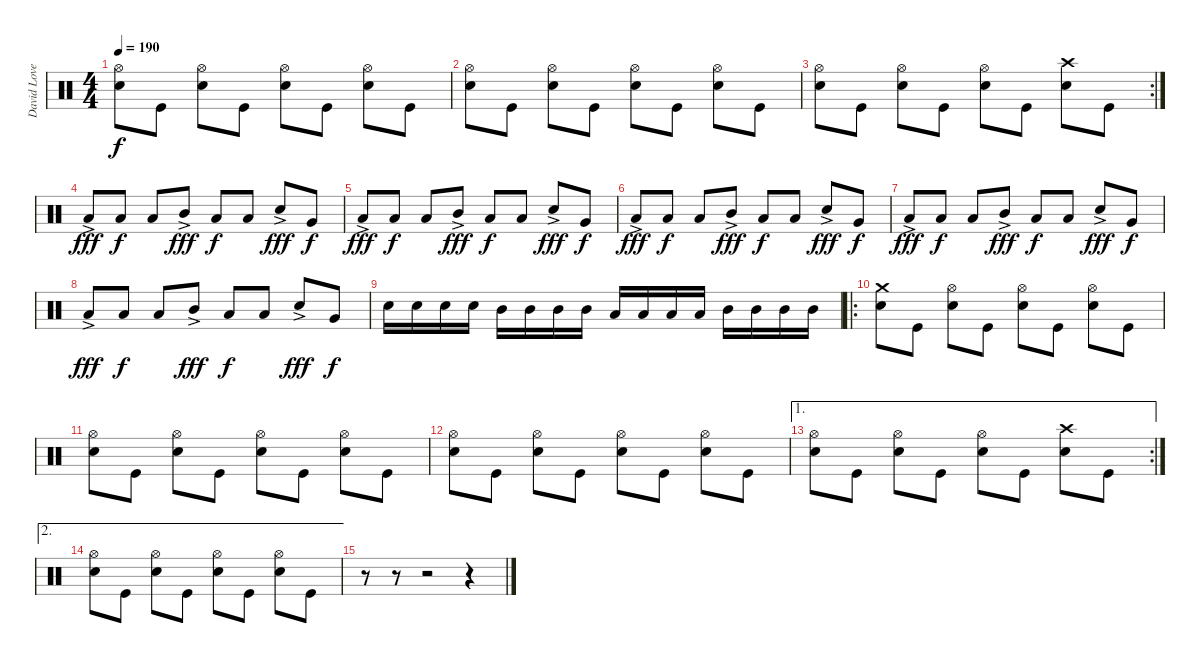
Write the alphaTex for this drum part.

\track ("David Lovering" "David Love") {instrument percussion}
\staff {score}
\articulation defaults
\ts (4 4)
\tempo 190
\clef neutral
\ks c
("Electric Snare (hit)" "Hi-Hat (open)").8{dy f} "Kick (hit)".8 ("Electric Snare (hit)" "Hi-Hat (open)").8 "Kick (hit)".8 ("Electric Snare (hit)" "Hi-Hat (open)").8 "Kick (hit)".8 ("Electric Snare (hit)" "Hi-Hat (open)").8 "Kick (hit)".8 |
("Electric Snare (hit)" "Hi-Hat (open)").8 "Kick (hit)".8 ("Electric Snare (hit)" "Hi-Hat (open)").8 "Kick (hit)".8 ("Electric Snare (hit)" "Hi-Hat (open)").8 "Kick (hit)".8 ("Electric Snare (hit)" "Hi-Hat (open)").8 "Kick (hit)".8 |
\rc 2
("Electric Snare (hit)" "Hi-Hat (open)").8 "Kick (hit)".8 ("Electric Snare (hit)" "Hi-Hat (open)").8 "Kick (hit)".8 ("Electric Snare (hit)" "Hi-Hat (open)").8 "Kick (hit)".8 ("Electric Snare (hit)" "Crash high (hit)").8 "Kick (hit)".8 |
"Low Tom (hit)"{ac}.8{dy fff} "Low Tom (hit)".8{dy f} "Low Tom (hit)".8 "Mid Tom (hit)"{ac}.8{dy fff} "Low Tom (hit)".8{dy f} "Low Tom (hit)".8 "Electric Snare (hit)"{ac}.8{dy fff} "Very Low Tom (hit)".8{dy f} |
"Low Tom (hit)"{ac}.8{dy fff} "Low Tom (hit)".8{dy f} "Low Tom (hit)".8 "Mid Tom (hit)"{ac}.8{dy fff} "Low Tom (hit)".8{dy f} "Low Tom (hit)".8 "Electric Snare (hit)"{ac}.8{dy fff} "Very Low Tom (hit)".8{dy f} |
"Low Tom (hit)"{ac}.8{dy fff} "Low Tom (hit)".8{dy f} "Low Tom (hit)".8 "Mid Tom (hit)"{ac}.8{dy fff} "Low Tom (hit)".8{dy f} "Low Tom (hit)".8 "Electric Snare (hit)"{ac}.8{dy fff} "Very Low Tom (hit)".8{dy f} |
"Low Tom (hit)"{ac}.8{dy fff} "Low Tom (hit)".8{dy f} "Low Tom (hit)".8 "Mid Tom (hit)"{ac}.8{dy fff} "Low Tom (hit)".8{dy f} "Low Tom (hit)".8 "Electric Snare (hit)"{ac}.8{dy fff} "Very Low Tom (hit)".8{dy f} |
"Low Tom (hit)"{ac}.8{dy fff} "Low Tom (hit)".8{dy f} "Low Tom (hit)".8 "Mid Tom (hit)"{ac}.8{dy fff} "Low Tom (hit)".8{dy f} "Low Tom (hit)".8 "Electric Snare (hit)"{ac}.8{dy fff} "Very Low Tom (hit)".8{dy f} |
"Electric Snare (hit)".16 "Electric Snare (hit)".16 "Electric Snare (hit)".16 "Electric Snare (hit)".16 "Mid Tom (hit)".16 "Mid Tom (hit)".16 "Mid Tom (hit)".16 "Mid Tom (hit)".16 "Low Tom (hit)".16 "Low Tom (hit)".16 "Low Tom (hit)".16 "Low Tom (hit)".16 "Mid Tom (hit)".16 "Mid Tom (hit)".16 "Mid Tom (hit)".16 "Mid Tom (hit)".16 |
\ro
("Electric Snare (hit)" "Crash medium (hit)").8 "Kick (hit)".8 ("Electric Snare (hit)" "Hi-Hat (open)").8 "Kick (hit)".8 ("Electric Snare (hit)" "Hi-Hat (open)").8 "Kick (hit)".8 ("Electric Snare (hit)" "Hi-Hat (open)").8 "Kick (hit)".8 |
("Electric Snare (hit)" "Hi-Hat (open)").8 "Kick (hit)".8 ("Electric Snare (hit)" "Hi-Hat (open)").8 "Kick (hit)".8 ("Electric Snare (hit)" "Hi-Hat (open)").8 "Kick (hit)".8 ("Electric Snare (hit)" "Hi-Hat (open)").8 "Kick (hit)".8 |
("Electric Snare (hit)" "Hi-Hat (open)").8 "Kick (hit)".8 ("Electric Snare (hit)" "Hi-Hat (open)").8 "Kick (hit)".8 ("Electric Snare (hit)" "Hi-Hat (open)").8 "Kick (hit)".8 ("Electric Snare (hit)" "Hi-Hat (open)").8 "Kick (hit)".8 |
\ae 1
\rc 2
("Electric Snare (hit)" "Hi-Hat (open)").8 "Kick (hit)".8 ("Electric Snare (hit)" "Hi-Hat (open)").8 "Kick (hit)".8 ("Electric Snare (hit)" "Hi-Hat (open)").8 "Kick (hit)".8 ("Electric Snare (hit)" "Crash high (hit)").8 "Kick (hit)".8 |
\ae 2
("Electric Snare (hit)" "Hi-Hat (open)").8 "Kick (hit)".8 ("Electric Snare (hit)" "Hi-Hat (open)").8 "Kick (hit)".8 ("Electric Snare (hit)" "Hi-Hat (open)").8 "Kick (hit)".8 ("Electric Snare (hit)" "Hi-Hat (open)").8 "Kick (hit)".8 |
r.8 r.8 r.2 r.4
